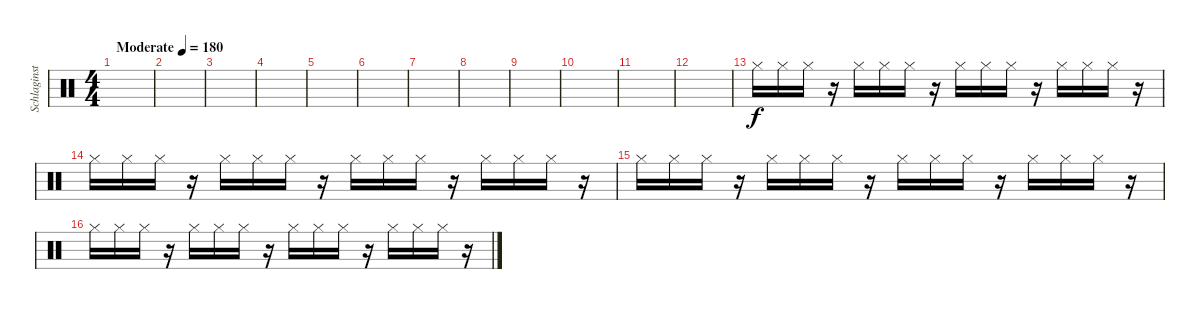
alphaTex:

\track ("Schlaginstrumente - Auswahl" "Schlaginst") {instrument percussion}
\staff {score}
\articulation defaults
\ts (4 4)
\tempo (180 "Moderate")
\clef neutral
\ks c
|
|
|
|
|
|
|
|
|
|
|
|
"Hi-Hat (closed)".16 "Hi-Hat (closed)".16 "Hi-Hat (closed)".16 r.16 "Hi-Hat (closed)".16 "Hi-Hat (closed)".16 "Hi-Hat (closed)".16 r.16 "Hi-Hat (closed)".16 "Hi-Hat (closed)".16 "Hi-Hat (closed)".16 r.16 "Hi-Hat (closed)".16 "Hi-Hat (closed)".16 "Hi-Hat (closed)".16 r.16 |
"Hi-Hat (closed)".16 "Hi-Hat (closed)".16 "Hi-Hat (closed)".16 r.16 "Hi-Hat (closed)".16 "Hi-Hat (closed)".16 "Hi-Hat (closed)".16 r.16 "Hi-Hat (closed)".16 "Hi-Hat (closed)".16 "Hi-Hat (closed)".16 r.16 "Hi-Hat (closed)".16 "Hi-Hat (closed)".16 "Hi-Hat (closed)".16 r.16 |
"Hi-Hat (closed)".16 "Hi-Hat (closed)".16 "Hi-Hat (closed)".16 r.16 "Hi-Hat (closed)".16 "Hi-Hat (closed)".16 "Hi-Hat (closed)".16 r.16 "Hi-Hat (closed)".16 "Hi-Hat (closed)".16 "Hi-Hat (closed)".16 r.16 "Hi-Hat (closed)".16 "Hi-Hat (closed)".16 "Hi-Hat (closed)".16 r.16 |
"Hi-Hat (closed)".16 "Hi-Hat (closed)".16 "Hi-Hat (closed)".16 r.16 "Hi-Hat (closed)".16 "Hi-Hat (closed)".16 "Hi-Hat (closed)".16 r.16 "Hi-Hat (closed)".16 "Hi-Hat (closed)".16 "Hi-Hat (closed)".16 r.16 "Hi-Hat (closed)".16 "Hi-Hat (closed)".16 "Hi-Hat (closed)".16 r.16
